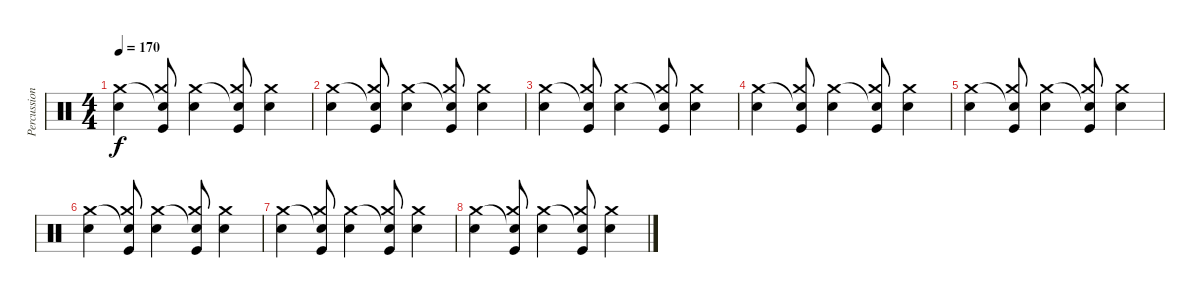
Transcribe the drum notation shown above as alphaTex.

\track ("Percussions" "Percussion") {instrument percussion}
\staff {score}
\articulation defaults
\ts (4 4)
\tempo 170
\clef neutral
\ks c
("Snare (hit) 2" "Crash medium (hit)").4{dy f} ("Kick (hit)" "Snare (hit)"{t} "Crash medium (hit)").8 ("Snare (hit) 2" "Crash medium (hit)").4 ("Kick (hit)" "Snare (hit)"{t} "Crash medium (hit)").8 ("Snare (hit) 2" "Crash medium (hit)").4 |
("Snare (hit) 2" "Crash medium (hit)").4 ("Kick (hit)" "Snare (hit)"{t} "Crash medium (hit)").8 ("Snare (hit) 2" "Crash medium (hit)").4 ("Kick (hit)" "Snare (hit)"{t} "Crash medium (hit)").8 ("Snare (hit) 2" "Crash medium (hit)").4 |
("Snare (hit) 2" "Crash medium (hit)").4 ("Kick (hit)" "Snare (hit)"{t} "Crash medium (hit)").8 ("Snare (hit) 2" "Crash medium (hit)").4 ("Kick (hit)" "Snare (hit)"{t} "Crash medium (hit)").8 ("Snare (hit) 2" "Crash medium (hit)").4 |
("Snare (hit) 2" "Crash medium (hit)").4 ("Kick (hit)" "Snare (hit)"{t} "Crash medium (hit)").8 ("Snare (hit) 2" "Crash medium (hit)").4 ("Kick (hit)" "Snare (hit)"{t} "Crash medium (hit)").8 ("Snare (hit) 2" "Crash medium (hit)").4 |
("Snare (hit) 2" "Crash medium (hit)").4 ("Kick (hit)" "Snare (hit)"{t} "Crash medium (hit)").8 ("Snare (hit) 2" "Crash medium (hit)").4 ("Kick (hit)" "Snare (hit)"{t} "Crash medium (hit)").8 ("Snare (hit) 2" "Crash medium (hit)").4 |
("Snare (hit) 2" "Crash medium (hit)").4 ("Kick (hit)" "Snare (hit)"{t} "Crash medium (hit)").8 ("Snare (hit) 2" "Crash medium (hit)").4 ("Kick (hit)" "Snare (hit)"{t} "Crash medium (hit)").8 ("Snare (hit) 2" "Crash medium (hit)").4 |
("Snare (hit) 2" "Crash medium (hit)").4 ("Kick (hit)" "Snare (hit)"{t} "Crash medium (hit)").8 ("Snare (hit) 2" "Crash medium (hit)").4 ("Kick (hit)" "Snare (hit)"{t} "Crash medium (hit)").8 ("Snare (hit) 2" "Crash medium (hit)").4 |
("Snare (hit) 2" "Crash medium (hit)").4 ("Kick (hit)" "Snare (hit)"{t} "Crash medium (hit)").8 ("Snare (hit) 2" "Crash medium (hit)").4 ("Kick (hit)" "Snare (hit)"{t} "Crash medium (hit)").8 ("Snare (hit) 2" "Crash medium (hit)").4
